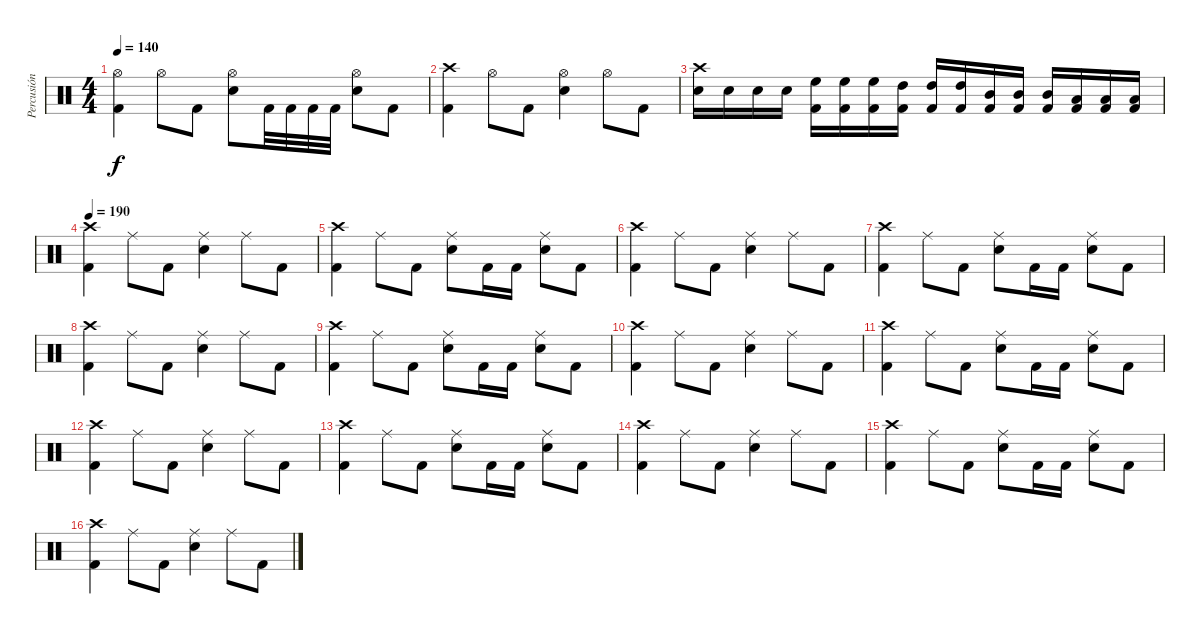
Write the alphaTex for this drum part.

\track ("Percusión" "Percusión") {instrument percussion}
\staff {score}
\articulation defaults
\ts (4 4)
\tempo 140
\clef neutral
\ks c
("Kick (hit) 2" "Hi-Hat (open)").4{dy f} "Hi-Hat (open)".8 "Kick (hit) 2".8 ("Snare (hit) 2" "Hi-Hat (open)").8 "Kick (hit) 2".32 "Kick (hit) 2".32 "Kick (hit) 2".32 "Kick (hit) 2".32 ("Snare (hit) 2" "Hi-Hat (open)").8 "Kick (hit) 2".8 |
("Kick (hit) 2" "Crash high (hit)").4 "Hi-Hat (open)".8 "Kick (hit) 2".8 ("Snare (hit) 2" "Hi-Hat (open)").4 "Hi-Hat (open)".8 "Kick (hit) 2".8 |
("Snare (hit) 2" "Crash high (hit)").16 "Snare (hit) 2".16 "Snare (hit) 2".16 "Snare (hit) 2".16 ("Kick (hit) 2" "High Floor Tom (hit)").16 ("Kick (hit) 2" "High Floor Tom (hit)").16 ("Kick (hit) 2" "High Floor Tom (hit)").16 ("Kick (hit) 2" "High Tom (hit)").16 ("Kick (hit) 2" "High Tom (hit)").16 ("Kick (hit) 2" "High Tom (hit)").16 ("Kick (hit) 2" "Mid Tom (hit)").16 ("Kick (hit) 2" "Mid Tom (hit)").16 ("Kick (hit) 2" "Mid Tom (hit)").16 ("Kick (hit) 2" "Low Tom (hit)").16 ("Kick (hit) 2" "Low Tom (hit)").16 ("Kick (hit) 2" "Low Tom (hit)").16 |
\tempo 190
("Kick (hit) 2" "Crash high (hit)").4 "Ride (middle)".8 "Kick (hit) 2".8 ("Snare (hit) 2" "Ride (middle)").4 "Ride (middle)".8 "Kick (hit) 2".8 |
("Kick (hit) 2" "Crash high (hit)").4 "Ride (middle)".8 "Kick (hit) 2".8 ("Snare (hit) 2" "Ride (middle)").8 "Kick (hit) 2".16 "Kick (hit) 2".16 ("Snare (hit) 2" "Ride (middle)").8 "Kick (hit) 2".8 |
("Kick (hit) 2" "Crash high (hit)").4 "Ride (middle)".8 "Kick (hit) 2".8 ("Snare (hit) 2" "Ride (middle)").4 "Ride (middle)".8 "Kick (hit) 2".8 |
("Kick (hit) 2" "Crash high (hit)").4 "Ride (middle)".8 "Kick (hit) 2".8 ("Snare (hit) 2" "Ride (middle)").8 "Kick (hit) 2".16 "Kick (hit) 2".16 ("Snare (hit) 2" "Ride (middle)").8 "Kick (hit) 2".8 |
("Kick (hit) 2" "Crash high (hit)").4 "Ride (middle)".8 "Kick (hit) 2".8 ("Snare (hit) 2" "Ride (middle)").4 "Ride (middle)".8 "Kick (hit) 2".8 |
("Kick (hit) 2" "Crash high (hit)").4 "Ride (middle)".8 "Kick (hit) 2".8 ("Snare (hit) 2" "Ride (middle)").8 "Kick (hit) 2".16 "Kick (hit) 2".16 ("Snare (hit) 2" "Ride (middle)").8 "Kick (hit) 2".8 |
("Kick (hit) 2" "Crash high (hit)").4 "Ride (middle)".8 "Kick (hit) 2".8 ("Snare (hit) 2" "Ride (middle)").4 "Ride (middle)".8 "Kick (hit) 2".8 |
("Kick (hit) 2" "Crash high (hit)").4 "Ride (middle)".8 "Kick (hit) 2".8 ("Snare (hit) 2" "Ride (middle)").8 "Kick (hit) 2".16 "Kick (hit) 2".16 ("Snare (hit) 2" "Ride (middle)").8 "Kick (hit) 2".8 |
("Kick (hit) 2" "Crash high (hit)").4 "Ride (middle)".8 "Kick (hit) 2".8 ("Snare (hit) 2" "Ride (middle)").4 "Ride (middle)".8 "Kick (hit) 2".8 |
("Kick (hit) 2" "Crash high (hit)").4 "Ride (middle)".8 "Kick (hit) 2".8 ("Snare (hit) 2" "Ride (middle)").8 "Kick (hit) 2".16 "Kick (hit) 2".16 ("Snare (hit) 2" "Ride (middle)").8 "Kick (hit) 2".8 |
("Kick (hit) 2" "Crash high (hit)").4 "Ride (middle)".8 "Kick (hit) 2".8 ("Snare (hit) 2" "Ride (middle)").4 "Ride (middle)".8 "Kick (hit) 2".8 |
("Kick (hit) 2" "Crash high (hit)").4 "Ride (middle)".8 "Kick (hit) 2".8 ("Snare (hit) 2" "Ride (middle)").8 "Kick (hit) 2".16 "Kick (hit) 2".16 ("Snare (hit) 2" "Ride (middle)").8 "Kick (hit) 2".8 |
("Kick (hit) 2" "Crash high (hit)").4 "Ride (middle)".8 "Kick (hit) 2".8 ("Snare (hit) 2" "Ride (middle)").4 "Ride (middle)".8 "Kick (hit) 2".8
